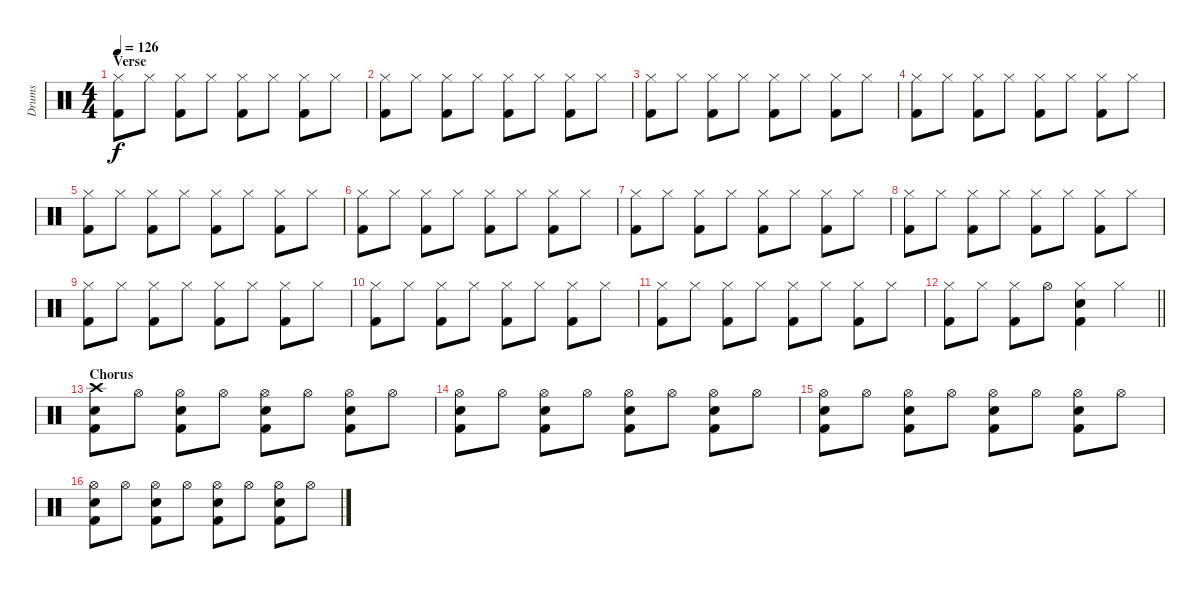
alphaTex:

\track ("Drums" "Drums") {instrument percussion}
\staff {score}
\articulation defaults
\ts (4 4)
\section ("" "Verse")
\tempo 126
\clef neutral
\ks c
("Hi-Hat (closed)" "Kick (hit) 2").8{dy f} "Hi-Hat (closed)".8 ("Hi-Hat (closed)" "Kick (hit) 2").8 "Hi-Hat (closed)".8 ("Hi-Hat (closed)" "Kick (hit) 2").8 "Hi-Hat (closed)".8 ("Hi-Hat (closed)" "Kick (hit) 2").8 "Hi-Hat (closed)".8 |
("Hi-Hat (closed)" "Kick (hit) 2").8 "Hi-Hat (closed)".8 ("Hi-Hat (closed)" "Kick (hit) 2").8 "Hi-Hat (closed)".8 ("Hi-Hat (closed)" "Kick (hit) 2").8 "Hi-Hat (closed)".8 ("Hi-Hat (closed)" "Kick (hit) 2").8 "Hi-Hat (closed)".8 |
("Hi-Hat (closed)" "Kick (hit) 2").8 "Hi-Hat (closed)".8 ("Hi-Hat (closed)" "Kick (hit) 2").8 "Hi-Hat (closed)".8 ("Hi-Hat (closed)" "Kick (hit) 2").8 "Hi-Hat (closed)".8 ("Hi-Hat (closed)" "Kick (hit) 2").8 "Hi-Hat (closed)".8 |
("Hi-Hat (closed)" "Kick (hit) 2").8 "Hi-Hat (closed)".8 ("Hi-Hat (closed)" "Kick (hit) 2").8 "Hi-Hat (closed)".8 ("Hi-Hat (closed)" "Kick (hit) 2").8 "Hi-Hat (closed)".8 ("Hi-Hat (closed)" "Kick (hit) 2").8 "Hi-Hat (closed)".8 |
("Hi-Hat (closed)" "Kick (hit) 2").8 "Hi-Hat (closed)".8 ("Hi-Hat (closed)" "Kick (hit) 2").8 "Hi-Hat (closed)".8 ("Hi-Hat (closed)" "Kick (hit) 2").8 "Hi-Hat (closed)".8 ("Hi-Hat (closed)" "Kick (hit) 2").8 "Hi-Hat (closed)".8 |
("Hi-Hat (closed)" "Kick (hit) 2").8 "Hi-Hat (closed)".8 ("Hi-Hat (closed)" "Kick (hit) 2").8 "Hi-Hat (closed)".8 ("Hi-Hat (closed)" "Kick (hit) 2").8 "Hi-Hat (closed)".8 ("Hi-Hat (closed)" "Kick (hit) 2").8 "Hi-Hat (closed)".8 |
("Hi-Hat (closed)" "Kick (hit) 2").8 "Hi-Hat (closed)".8 ("Hi-Hat (closed)" "Kick (hit) 2").8 "Hi-Hat (closed)".8 ("Hi-Hat (closed)" "Kick (hit) 2").8 "Hi-Hat (closed)".8 ("Hi-Hat (closed)" "Kick (hit) 2").8 "Hi-Hat (closed)".8 |
("Hi-Hat (closed)" "Kick (hit) 2").8 "Hi-Hat (closed)".8 ("Hi-Hat (closed)" "Kick (hit) 2").8 "Hi-Hat (closed)".8 ("Hi-Hat (closed)" "Kick (hit) 2").8 "Hi-Hat (closed)".8 ("Hi-Hat (closed)" "Kick (hit) 2").8 "Hi-Hat (closed)".8 |
("Hi-Hat (closed)" "Kick (hit) 2").8 "Hi-Hat (closed)".8 ("Hi-Hat (closed)" "Kick (hit) 2").8 "Hi-Hat (closed)".8 ("Hi-Hat (closed)" "Kick (hit) 2").8 "Hi-Hat (closed)".8 ("Hi-Hat (closed)" "Kick (hit) 2").8 "Hi-Hat (closed)".8 |
("Hi-Hat (closed)" "Kick (hit) 2").8 "Hi-Hat (closed)".8 ("Hi-Hat (closed)" "Kick (hit) 2").8 "Hi-Hat (closed)".8 ("Hi-Hat (closed)" "Kick (hit) 2").8 "Hi-Hat (closed)".8 ("Hi-Hat (closed)" "Kick (hit) 2").8 "Hi-Hat (closed)".8 |
("Hi-Hat (closed)" "Kick (hit) 2").8 "Hi-Hat (closed)".8 ("Hi-Hat (closed)" "Kick (hit) 2").8 "Hi-Hat (closed)".8 ("Hi-Hat (closed)" "Kick (hit) 2").8 "Hi-Hat (closed)".8 ("Hi-Hat (closed)" "Kick (hit) 2").8 "Hi-Hat (closed)".8 |
\barLineRight lightlight
("Hi-Hat (closed)" "Kick (hit) 2").8 "Hi-Hat (closed)".8 ("Hi-Hat (closed)" "Kick (hit) 2").8 "Hi-Hat (open)".8 ("Hi-Hat (closed)" "Kick (hit) 2" "Electric Snare (hit)").4 "Hi-Hat (closed)".4 |
\section ("" "Chorus")
("Crash high (hit)" "Kick (hit) 2" "Electric Snare (hit)").8 "Hi-Hat (open)".8 ("Hi-Hat (open)" "Kick (hit) 2" "Electric Snare (hit)").8 "Hi-Hat (open)".8 ("Hi-Hat (open)" "Kick (hit) 2" "Electric Snare (hit)").8 "Hi-Hat (open)".8 ("Hi-Hat (open)" "Kick (hit) 2" "Electric Snare (hit)").8 "Hi-Hat (open)".8 |
("Hi-Hat (open)" "Kick (hit) 2" "Electric Snare (hit)").8 "Hi-Hat (open)".8 ("Hi-Hat (open)" "Kick (hit) 2" "Electric Snare (hit)").8 "Hi-Hat (open)".8 ("Hi-Hat (open)" "Kick (hit) 2" "Electric Snare (hit)").8 "Hi-Hat (open)".8 ("Hi-Hat (open)" "Kick (hit) 2" "Electric Snare (hit)").8 "Hi-Hat (open)".8 |
("Hi-Hat (open)" "Kick (hit) 2" "Electric Snare (hit)").8 "Hi-Hat (open)".8 ("Hi-Hat (open)" "Kick (hit) 2" "Electric Snare (hit)").8 "Hi-Hat (open)".8 ("Hi-Hat (open)" "Kick (hit) 2" "Electric Snare (hit)").8 "Hi-Hat (open)".8 ("Hi-Hat (open)" "Kick (hit) 2" "Electric Snare (hit)").8 "Hi-Hat (open)".8 |
("Hi-Hat (open)" "Kick (hit) 2" "Electric Snare (hit)").8 "Hi-Hat (open)".8 ("Hi-Hat (open)" "Kick (hit) 2" "Electric Snare (hit)").8 "Hi-Hat (open)".8 ("Hi-Hat (open)" "Kick (hit) 2" "Electric Snare (hit)").8 "Hi-Hat (open)".8 ("Hi-Hat (open)" "Kick (hit) 2" "Electric Snare (hit)").8 "Hi-Hat (open)".8
